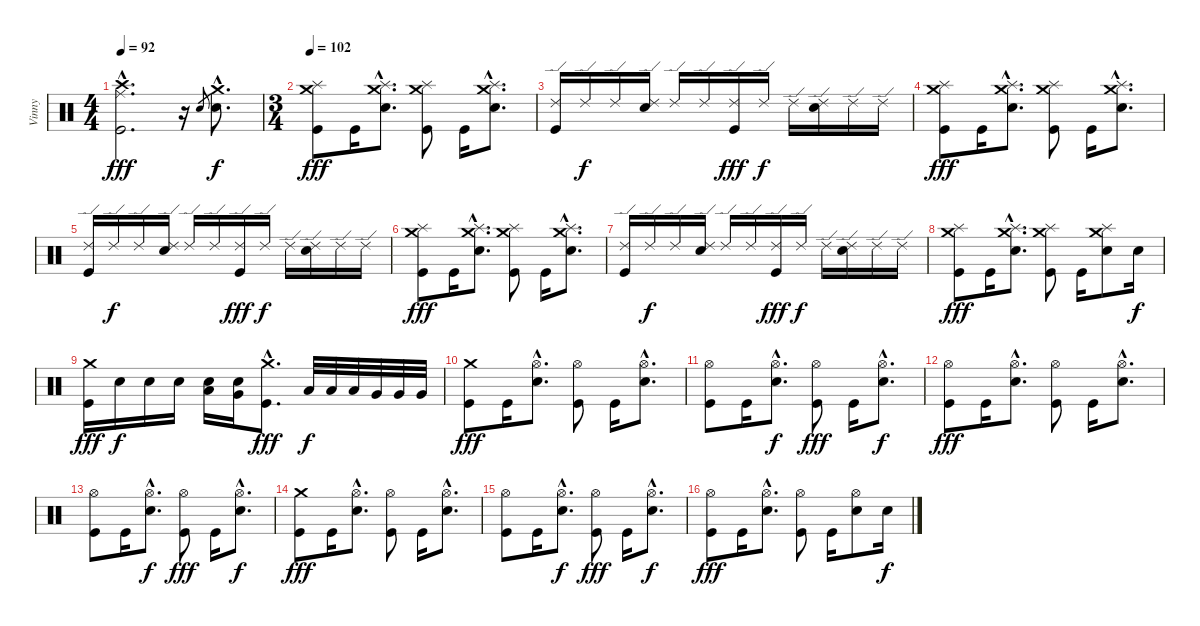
\track ("Vinny" "Vinny") {instrument percussion}
\staff {score}
\articulation defaults
\ts (4 4)
\tempo 92
\clef neutral
\ks c
("Crash high (hit)"{hac} "Ride (middle)"{hac} "Kick (hit)"{hac}).2{d dy fff} r.16 "Electric Snare (hit)".8{gr} ("Crash medium (hit)"{hac} "Electric Snare (hit)"{hac}).8{d dy f} |
\ts (3 4)
\section ("" "")
\tempo 102
("Crash medium (hit)" "Splash (hit)" "Kick (hit)").8{dy fff} "Kick (hit)".16 ("Crash medium (hit)"{hac} "Splash (hit)"{hac} "Electric Snare (hit)").8{d} ("Crash medium (hit)" "Splash (hit)" "Kick (hit)").8 "Kick (hit)".16 ("Crash medium (hit)"{hac} "Splash (hit)"{hac} "Electric Snare (hit)").8{d} |
("Ride (edge) 2" "Kick (hit)").16 "Ride (edge) 2".16{dy f} "Ride (edge) 2".16 ("Ride (edge) 2" "Electric Snare (hit)").16 "Ride (edge) 2".16 "Ride (edge) 2".16 ("Ride (edge) 2" "Kick (hit)").16{dy fff} "Ride (edge) 2".16{dy f} "Ride (edge) 2".16 ("Ride (edge) 2" "Electric Snare (hit)").16 "Ride (edge) 2".16 "Ride (edge) 2".16 |
("Crash medium (hit)" "Splash (hit)" "Kick (hit)").8{dy fff} "Kick (hit)".16 ("Crash medium (hit)"{hac} "Splash (hit)"{hac} "Electric Snare (hit)").8{d} ("Crash medium (hit)" "Splash (hit)" "Kick (hit)").8 "Kick (hit)".16 ("Crash medium (hit)"{hac} "Splash (hit)"{hac} "Electric Snare (hit)").8{d} |
("Ride (edge) 2" "Kick (hit)").16 "Ride (edge) 2".16{dy f} "Ride (edge) 2".16 ("Ride (edge) 2" "Electric Snare (hit)").16 "Ride (edge) 2".16 "Ride (edge) 2".16 ("Ride (edge) 2" "Kick (hit)").16{dy fff} "Ride (edge) 2".16{dy f} "Ride (edge) 2".16 ("Ride (edge) 2" "Electric Snare (hit)").16 "Ride (edge) 2".16 "Ride (edge) 2".16 |
("Crash medium (hit)" "Splash (hit)" "Kick (hit)").8{dy fff} "Kick (hit)".16 ("Crash medium (hit)"{hac} "Splash (hit)"{hac} "Electric Snare (hit)").8{d} ("Crash medium (hit)" "Splash (hit)" "Kick (hit)").8 "Kick (hit)".16 ("Crash medium (hit)"{hac} "Splash (hit)"{hac} "Electric Snare (hit)").8{d} |
("Ride (edge) 2" "Kick (hit)").16 "Ride (edge) 2".16{dy f} "Ride (edge) 2".16 ("Ride (edge) 2" "Electric Snare (hit)").16 "Ride (edge) 2".16 "Ride (edge) 2".16 ("Ride (edge) 2" "Kick (hit)").16{dy fff} "Ride (edge) 2".16{dy f} "Ride (edge) 2".16 ("Ride (edge) 2" "Electric Snare (hit)").16 "Ride (edge) 2".16 "Ride (edge) 2".16 |
("Crash medium (hit)" "Splash (hit)" "Kick (hit)").8{dy fff} "Kick (hit)".16 ("Crash medium (hit)"{hac} "Splash (hit)"{hac} "Electric Snare (hit)").8{d} ("Crash medium (hit)" "Splash (hit)" "Kick (hit)").8 "Kick (hit)".16 ("Crash medium (hit)" "Splash (hit)" "Electric Snare (hit)").8 "Electric Snare (hit)".16{dy f} |
("Crash medium (hit)" "Kick (hit)").16{dy fff} "Electric Snare (hit)".16{dy f} "Electric Snare (hit)".16 "Electric Snare (hit)".16 ("Electric Snare (hit)" "Low Tom (hit)").16 ("Electric Snare (hit)" "Very Low Tom (hit)").16 ("Crash medium (hit)"{hac} "Kick (hit)"{hac}).8{d dy fff} "Low Tom (hit)".32{dy f} "Low Tom (hit)".32 "Low Tom (hit)".32 "Very Low Tom (hit)".32 "Very Low Tom (hit)".32 "Very Low Tom (hit)".32 |
\section ("" "")
("Crash medium (hit)" "Kick (hit)").8{dy fff} "Kick (hit)".16 ("Hi-Hat (open)"{hac} "Electric Snare (hit)").8{d} ("Hi-Hat (open)" "Kick (hit)").8 "Kick (hit)".16 ("Hi-Hat (open)"{hac} "Electric Snare (hit)").8{d} |
("Hi-Hat (open)" "Kick (hit)").8 "Kick (hit)".16 ("Hi-Hat (open)"{hac} "Electric Snare (hit)"{hac}).8{d dy f} ("Hi-Hat (open)" "Kick (hit)").8{dy fff} "Kick (hit)".16 ("Hi-Hat (open)"{hac} "Electric Snare (hit)"{hac}).8{d dy f} |
("Hi-Hat (open)" "Kick (hit)").8{dy fff} "Kick (hit)".16 ("Hi-Hat (open)"{hac} "Electric Snare (hit)").8{d} ("Hi-Hat (open)" "Kick (hit)").8 "Kick (hit)".16 ("Hi-Hat (open)"{hac} "Electric Snare (hit)").8{d} |
("Hi-Hat (open)" "Kick (hit)").8 "Kick (hit)".16 ("Hi-Hat (open)"{hac} "Electric Snare (hit)"{hac}).8{d dy f} ("Hi-Hat (open)" "Kick (hit)").8{dy fff} "Kick (hit)".16 ("Hi-Hat (open)"{hac} "Electric Snare (hit)"{hac}).8{d dy f} |
("Crash medium (hit)" "Kick (hit)").8{dy fff} "Kick (hit)".16 ("Hi-Hat (open)"{hac} "Electric Snare (hit)").8{d} ("Hi-Hat (open)" "Kick (hit)").8 "Kick (hit)".16 ("Hi-Hat (open)"{hac} "Electric Snare (hit)").8{d} |
("Hi-Hat (open)" "Kick (hit)").8 "Kick (hit)".16 ("Hi-Hat (open)"{hac} "Electric Snare (hit)"{hac}).8{d dy f} ("Hi-Hat (open)" "Kick (hit)").8{dy fff} "Kick (hit)".16 ("Hi-Hat (open)"{hac} "Electric Snare (hit)"{hac}).8{d dy f} |
("Hi-Hat (open)" "Kick (hit)").8{dy fff} "Kick (hit)".16 ("Hi-Hat (open)"{hac} "Electric Snare (hit)").8{d} ("Hi-Hat (open)" "Kick (hit)").8 "Kick (hit)".16 ("Hi-Hat (open)" "Electric Snare (hit)").8 "Electric Snare (hit)".16{dy f}
